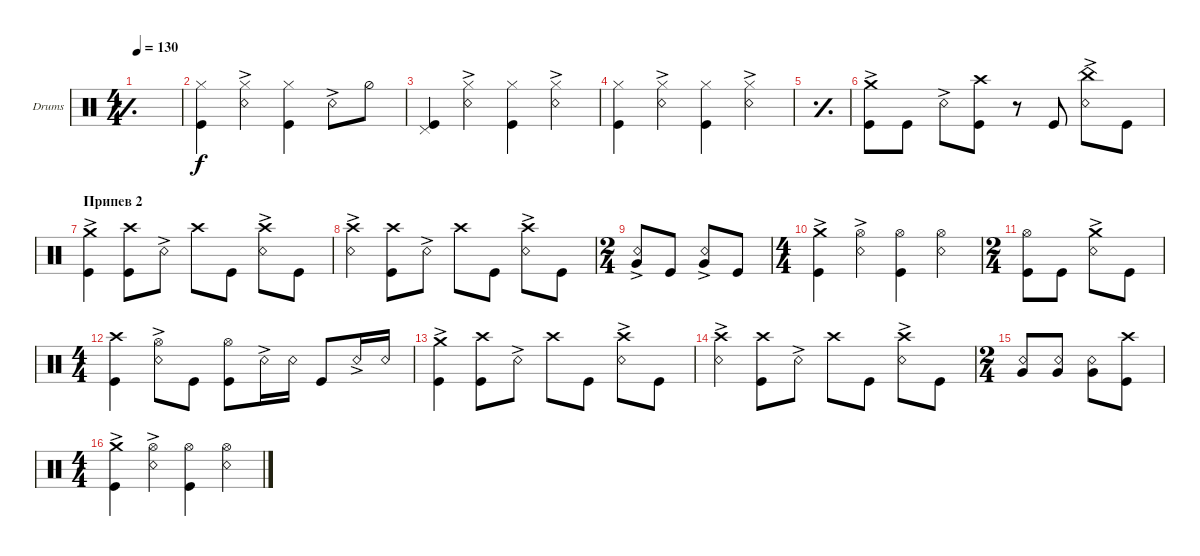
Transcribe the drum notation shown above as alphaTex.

\defaultSystemsLayout 4
\bracketExtendMode groupsimilarinstruments
\firstSystemTrackNameOrientation horizontal
\otherSystemsTrackNameOrientation horizontal
\track ("Drumkit" "Drums") {instrument percussion}
\staff {score}
\articulation defaults
\ts (4 4)
\tempo 130
\clef neutral
\simile simple
\ks c
|
("Hi-Hat (closed)" "Kick (hit)").4 ("Hi-Hat (closed)" "Snare (rim shot)"{ac}).4 ("Hi-Hat (closed)" "Kick (hit)").4 "Snare (rim shot)"{ac}.8 "Hi-Hat (half)".8 |
("Pedal Hi-Hat (hit)" "Kick (hit)").4 ("Hi-Hat (closed)" "Snare (rim shot)"{ac}).4 ("Hi-Hat (closed)" "Kick (hit)").4 ("Hi-Hat (closed)" "Snare (rim shot)"{ac}).4 |
("Hi-Hat (closed)" "Kick (hit)").4 ("Hi-Hat (closed)" "Snare (rim shot)"{ac}).4 ("Hi-Hat (closed)" "Kick (hit)").4 ("Hi-Hat (closed)" "Snare (rim shot)"{ac}).4 |
\simile simple
|
\simile none
("Kick (hit)" "Crash medium (hit)"{ac}).8 "Kick (hit)".8 "Snare (rim shot)"{ac}.8 ("Kick (hit)" "Crash high (hit)").8 r.8 "Kick (hit)".8 ("Snare (rim shot)"{ac} "China (hit)").8 "Kick (hit)".8 |
\section ("" "Припев 2")
("Crash medium (hit)"{ac} "Kick (hit)").4 ("Crash high (hit)" "Kick (hit)").8 "Snare (rim shot)"{ac}.8 "Crash high (hit)".8 "Kick (hit)".8 ("Crash high (hit)" "Snare (rim shot)"{ac}).8 "Kick (hit)".8 |
("Crash high (hit)" "Snare (rim shot)"{ac}).4 ("Crash high (hit)" "Kick (hit)").8 "Snare (rim shot)"{ac}.8 "Crash high (hit)".8 "Kick (hit)".8 ("Crash high (hit)" "Snare (rim shot)"{ac}).8 "Kick (hit)".8 |
\ts (2 4)
("Snare (rim shot)"{ac} "Very Low Tom (hit)").8 "Kick (hit)".8 ("Snare (rim shot)"{ac} "Very Low Tom (hit)").8 "Kick (hit)".8 |
\ts (4 4)
("Crash medium (hit)"{ac} "Kick (hit)").4 ("Hi-Hat (open)" "Snare (rim shot)"{ac}).4 ("Hi-Hat (open)" "Kick (hit)").4 ("Hi-Hat (open)" "Snare (rim shot)").4 |
\ts (2 4)
("Hi-Hat (open)" "Kick (hit)").8 "Kick (hit)".8 ("Crash medium (hit)"{ac} "Snare (rim shot)"{ac}).8 "Kick (hit)".8 |
\ts (4 4)
("Kick (hit)" "Crash high (hit)").4 ("Hi-Hat (open)" "Snare (rim shot)"{ac}).8 "Kick (hit)".8 ("Hi-Hat (open)" "Kick (hit)").8 "Snare (rim shot)"{ac}.16 "Snare (rim shot)".16 "Kick (hit)".8 "Snare (rim shot)"{ac}.16 "Snare (rim shot)".16 |
("Crash medium (hit)"{ac} "Kick (hit)").4 ("Crash high (hit)" "Kick (hit)").8 "Snare (rim shot)"{ac}.8 "Crash high (hit)".8 "Kick (hit)".8 ("Crash high (hit)" "Snare (rim shot)"{ac}).8 "Kick (hit)".8 |
("Crash high (hit)" "Snare (rim shot)"{ac}).4 ("Crash high (hit)" "Kick (hit)").8 "Snare (rim shot)"{ac}.8 "Crash high (hit)".8 "Kick (hit)".8 ("Crash high (hit)" "Snare (rim shot)"{ac}).8 "Kick (hit)".8 |
\ts (2 4)
("Snare (rim shot)" "Very Low Tom (hit)").8 ("Snare (rim shot)" "Very Low Tom (hit)").8 ("Snare (rim shot)" "Very Low Tom (hit)").8 ("Crash high (hit)" "Kick (hit)").8 |
\ts (4 4)
("Crash medium (hit)"{ac} "Kick (hit)").4 ("Hi-Hat (open)" "Snare (rim shot)"{ac}).4 ("Hi-Hat (open)" "Kick (hit)").4 ("Hi-Hat (open)" "Snare (rim shot)").4
